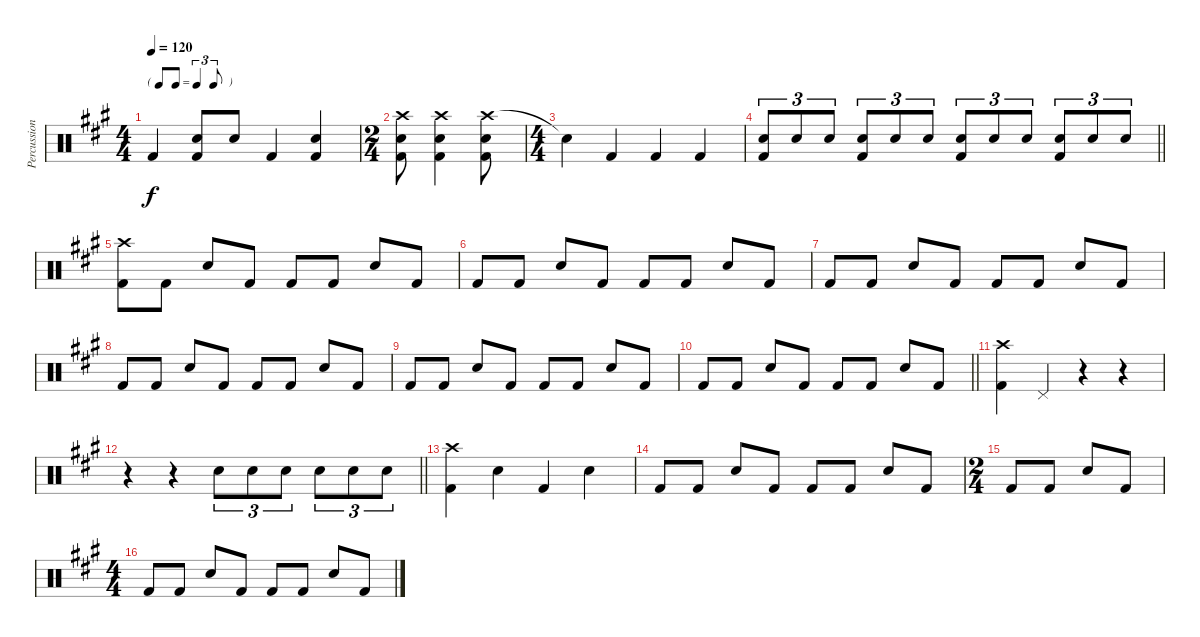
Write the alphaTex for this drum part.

\track ("Percussion" "Percussion") {instrument percussion}
\staff {score}
\articulation defaults
\ts (4 4)
\tf triplet8th
\tempo 120
\clef neutral
\ks a "Kick (hit) 2".4{dy f}
("Snare (hit) 2" "Kick (hit) 2").8 "Snare (hit) 2".8 "Kick (hit) 2".4 ("Snare (hit) 2" "Kick (hit) 2").4 |
\ts (2 4)
("Crash high (hit)" "Snare (hit) 2" "Kick (hit) 2").8 ("Crash high (hit)" "Snare (hit) 2" "Kick (hit) 2").4 ("Crash high (hit)" "Snare (hit) 2" "Kick (hit) 2").8 |
\ts (4 4)
"Snare (hit)"{t}.4 "Kick (hit) 2".4 "Kick (hit) 2".4 "Kick (hit) 2".4 |
\barLineRight lightlight
("Snare (hit) 2" "Kick (hit) 2").8{tu (3 2)} "Snare (hit) 2".8{tu (3 2)} "Snare (hit) 2".8{tu (3 2)} ("Snare (hit) 2" "Kick (hit) 2").8{tu (3 2)} "Snare (hit) 2".8{tu (3 2)} "Snare (hit) 2".8{tu (3 2)} ("Snare (hit) 2" "Kick (hit) 2").8{tu (3 2)} "Snare (hit) 2".8{tu (3 2)} "Snare (hit) 2".8{tu (3 2)} ("Snare (hit) 2" "Kick (hit) 2").8{tu (3 2)} "Snare (hit) 2".8{tu (3 2)} "Snare (hit) 2".8{tu (3 2)} |
("Crash high (hit)" "Kick (hit) 2").8 "Kick (hit) 2".8 "Snare (hit) 2".8 "Kick (hit) 2".8 "Kick (hit) 2".8 "Kick (hit) 2".8 "Snare (hit) 2".8 "Kick (hit) 2".8 |
"Kick (hit) 2".8 "Kick (hit) 2".8 "Snare (hit) 2".8 "Kick (hit) 2".8 "Kick (hit) 2".8 "Kick (hit) 2".8 "Snare (hit) 2".8 "Kick (hit) 2".8 |
"Kick (hit) 2".8 "Kick (hit) 2".8 "Snare (hit) 2".8 "Kick (hit) 2".8 "Kick (hit) 2".8 "Kick (hit) 2".8 "Snare (hit) 2".8 "Kick (hit) 2".8 |
"Kick (hit) 2".8 "Kick (hit) 2".8 "Snare (hit) 2".8 "Kick (hit) 2".8 "Kick (hit) 2".8 "Kick (hit) 2".8 "Snare (hit) 2".8 "Kick (hit) 2".8 |
"Kick (hit) 2".8 "Kick (hit) 2".8 "Snare (hit) 2".8 "Kick (hit) 2".8 "Kick (hit) 2".8 "Kick (hit) 2".8 "Snare (hit) 2".8 "Kick (hit) 2".8 |
\barLineRight lightlight "Kick (hit) 2".8 "Kick (hit) 2".8 "Snare (hit) 2".8 "Kick (hit) 2".8 "Kick (hit) 2".8 "Kick (hit) 2".8 "Snare (hit) 2".8 "Kick (hit) 2".8
|
("Crash high (hit)" "Kick (hit) 2").4 "Pedal Hi-Hat (hit)".4 r.4 r.4 |
\barLineRight lightlight
r.4 r.4 "Snare (hit) 2".8{tu (3 2)} "Snare (hit) 2".8{tu (3 2)} "Snare (hit) 2".8{tu (3 2)} "Snare (hit) 2".8{tu (3 2)} "Snare (hit) 2".8{tu (3 2)} "Snare (hit) 2".8{tu (3 2)} |
("Crash high (hit)" "Kick (hit) 2").4 "Snare (hit) 2".4 "Kick (hit) 2".4 "Snare (hit) 2".4 |
"Kick (hit) 2".8 "Kick (hit) 2".8 "Snare (hit) 2".8 "Kick (hit) 2".8 "Kick (hit) 2".8 "Kick (hit) 2".8 "Snare (hit) 2".8 "Kick (hit) 2".8 |
\ts (2 4)
"Kick (hit) 2".8 "Kick (hit) 2".8 "Snare (hit) 2".8 "Kick (hit) 2".8 |
\ts (4 4)
"Kick (hit) 2".8 "Kick (hit) 2".8 "Snare (hit) 2".8 "Kick (hit) 2".8 "Kick (hit) 2".8 "Kick (hit) 2".8 "Snare (hit) 2".8 "Kick (hit) 2".8
